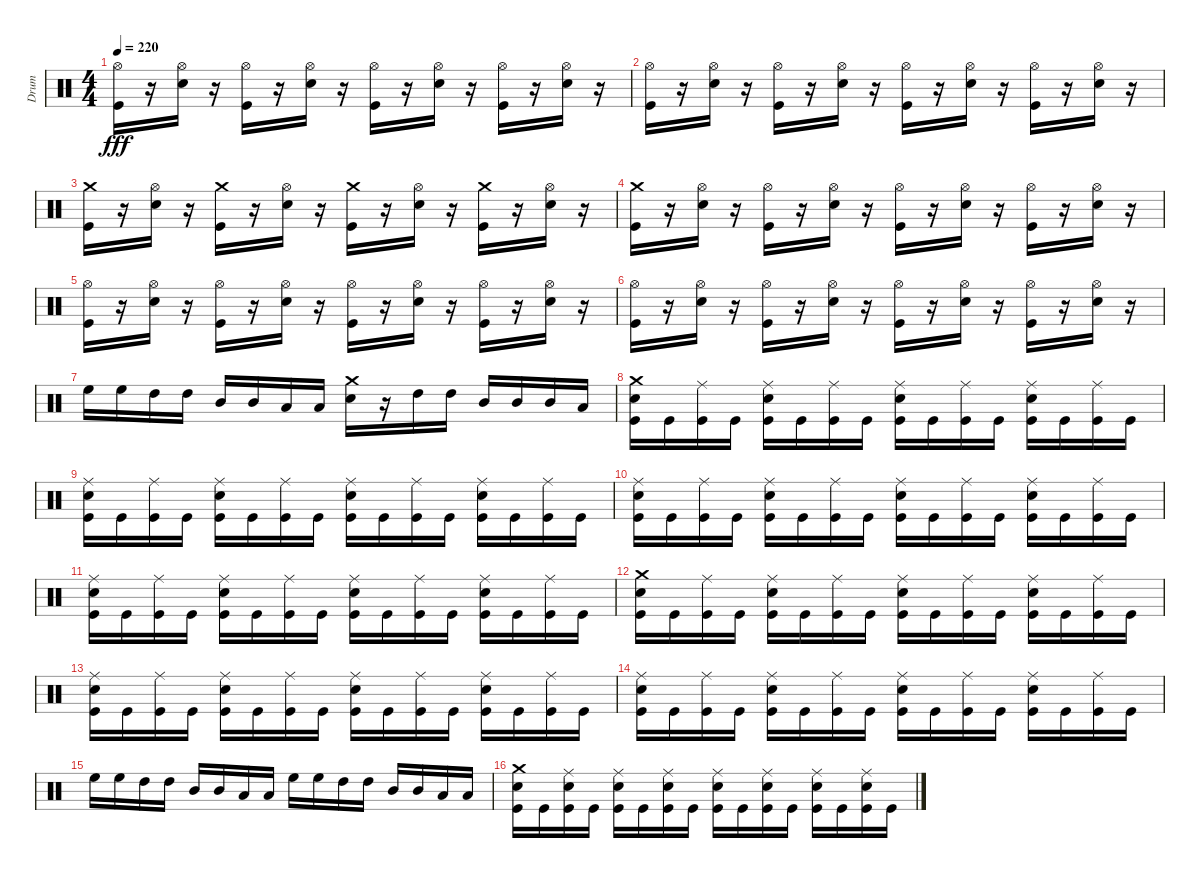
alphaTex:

\track ("Drum" "Drum") {instrument percussion}
\staff {score}
\articulation defaults
\ts (4 4)
\tempo 220
\clef neutral
\ks c
("Kick (hit)" "Hi-Hat (open)").16{dy fff} r.16 ("Snare (hit) 2" "Hi-Hat (open)").16 r.16 ("Kick (hit)" "Hi-Hat (open)").16 r.16 ("Hi-Hat (open)" "Snare (hit) 2").16 r.16 ("Kick (hit)" "Hi-Hat (open)").16 r.16 ("Snare (hit) 2" "Hi-Hat (open)").16 r.16 ("Hi-Hat (open)" "Kick (hit)").16 r.16 ("Hi-Hat (open)" "Snare (hit) 2").16 r.16 |
("Kick (hit)" "Hi-Hat (open)").16 r.16 ("Snare (hit) 2" "Hi-Hat (open)").16 r.16 ("Hi-Hat (open)" "Kick (hit)").16 r.16 ("Hi-Hat (open)" "Snare (hit) 2").16 r.16 ("Hi-Hat (open)" "Kick (hit)").16 r.16 ("Hi-Hat (open)" "Snare (hit) 2").16 r.16 ("Hi-Hat (open)" "Kick (hit)").16 r.16 ("Snare (hit) 2" "Hi-Hat (open)").16 r.16 |
("Kick (hit)" "Crash medium (hit)").16 r.16 ("Hi-Hat (open)" "Snare (hit) 2").16 r.16 ("Crash medium (hit)" "Kick (hit)").16 r.16 ("Snare (hit) 2" "Hi-Hat (open)").16 r.16 ("Crash medium (hit)" "Kick (hit)").16 r.16 ("Hi-Hat (open)" "Snare (hit) 2").16 r.16 ("Kick (hit)" "Crash medium (hit)").16 r.16 ("Hi-Hat (open)" "Snare (hit) 2").16 r.16 |
("Crash medium (hit)" "Kick (hit)").16 r.16 ("Hi-Hat (open)" "Snare (hit) 2").16 r.16 ("Kick (hit)" "Hi-Hat (open)").16 r.16 ("Hi-Hat (open)" "Snare (hit) 2").16 r.16 ("Hi-Hat (open)" "Kick (hit)").16 r.16 ("Hi-Hat (open)" "Snare (hit) 2").16 r.16 ("Hi-Hat (open)" "Kick (hit)").16 r.16 ("Hi-Hat (open)" "Snare (hit) 2").16 r.16 |
("Kick (hit)" "Hi-Hat (open)").16 r.16 ("Snare (hit) 2" "Hi-Hat (open)").16 r.16 ("Hi-Hat (open)" "Kick (hit)").16 r.16 ("Hi-Hat (open)" "Snare (hit) 2").16 r.16 ("Hi-Hat (open)" "Kick (hit)").16 r.16 ("Snare (hit) 2" "Hi-Hat (open)").16 r.16 ("Kick (hit)" "Hi-Hat (open)").16 r.16 ("Hi-Hat (open)" "Snare (hit) 2").16 r.16 |
("Hi-Hat (open)" "Kick (hit)").16 r.16 ("Hi-Hat (open)" "Snare (hit) 2").16 r.16 ("Hi-Hat (open)" "Kick (hit)").16 r.16 ("Snare (hit) 2" "Hi-Hat (open)").16 r.16 ("Hi-Hat (open)" "Kick (hit)").16 r.16 ("Hi-Hat (open)" "Snare (hit) 2").16 r.16 ("Kick (hit)" "Hi-Hat (open)").16 r.16 ("Snare (hit) 2" "Hi-Hat (open)").16 r.16 |
"High Floor Tom (hit)".16 "High Floor Tom (hit)".16 "High Tom (hit)".16 "High Tom (hit)".16 "Mid Tom (hit)".16 "Mid Tom (hit)".16 "Low Tom (hit)".16 "Low Tom (hit)".16 ("Snare (hit) 2" "Crash medium (hit)").16 r.16 "High Tom (hit)".16 "High Tom (hit)".16 "Mid Tom (hit)".16 "Mid Tom (hit)".16 "Mid Tom (hit)".16 "Low Tom (hit)".16 |
("Snare (hit) 2" "Crash medium (hit)" "Kick (hit)").16 "Kick (hit)".16 ("Ride (middle)" "Kick (hit)").16 "Kick (hit)".16 ("Ride (middle)" "Snare (hit) 2" "Kick (hit)").16 "Kick (hit)".16 ("Kick (hit)" "Ride (middle)").16 "Kick (hit)".16 ("Kick (hit)" "Ride (middle)" "Snare (hit) 2").16 "Kick (hit)".16 ("Kick (hit)" "Ride (middle)").16 "Kick (hit)".16 ("Ride (middle)" "Kick (hit)" "Snare (hit) 2").16 "Kick (hit)".16 ("Kick (hit)" "Ride (middle)").16 "Kick (hit)".16 |
("Kick (hit)" "Ride (middle)" "Snare (hit) 2").16 "Kick (hit)".16 ("Kick (hit)" "Ride (middle)").16 "Kick (hit)".16 ("Kick (hit)" "Snare (hit) 2" "Ride (middle)").16 "Kick (hit)".16 ("Kick (hit)" "Ride (middle)").16 "Kick (hit)".16 ("Kick (hit)" "Ride (middle)" "Snare (hit) 2").16 "Kick (hit)".16 ("Ride (middle)" "Kick (hit)").16 "Kick (hit)".16 ("Kick (hit)" "Ride (middle)" "Snare (hit) 2").16 "Kick (hit)".16 ("Ride (middle)" "Kick (hit)").16 "Kick (hit)".16 |
("Snare (hit) 2" "Kick (hit)" "Ride (middle)").16 "Kick (hit)".16 ("Ride (middle)" "Kick (hit)").16 "Kick (hit)".16 ("Kick (hit)" "Snare (hit) 2" "Ride (middle)").16 "Kick (hit)".16 ("Kick (hit)" "Ride (middle)").16 "Kick (hit)".16 ("Kick (hit)" "Ride (middle)" "Snare (hit) 2").16 "Kick (hit)".16 ("Kick (hit)" "Ride (middle)").16 "Kick (hit)".16 ("Kick (hit)" "Ride (middle)" "Snare (hit) 2").16 "Kick (hit)".16 ("Kick (hit)" "Ride (middle)").16 "Kick (hit)".16 |
("Snare (hit) 2" "Kick (hit)" "Ride (middle)").16 "Kick (hit)".16 ("Kick (hit)" "Ride (middle)").16 "Kick (hit)".16 ("Snare (hit) 2" "Ride (middle)" "Kick (hit)").16 "Kick (hit)".16 ("Ride (middle)" "Kick (hit)").16 "Kick (hit)".16 ("Ride (middle)" "Kick (hit)" "Snare (hit) 2").16 "Kick (hit)".16 ("Ride (middle)" "Kick (hit)").16 "Kick (hit)".16 ("Ride (middle)" "Snare (hit) 2" "Kick (hit)").16 "Kick (hit)".16 ("Kick (hit)" "Ride (middle)").16 "Kick (hit)".16 |
("Snare (hit) 2" "Kick (hit)" "Crash medium (hit)").16 "Kick (hit)".16 ("Kick (hit)" "Ride (middle)").16 "Kick (hit)".16 ("Kick (hit)" "Snare (hit) 2" "Ride (middle)").16 "Kick (hit)".16 ("Kick (hit)" "Ride (middle)").16 "Kick (hit)".16 ("Ride (middle)" "Snare (hit) 2" "Kick (hit)").16 "Kick (hit)".16 ("Kick (hit)" "Ride (middle)").16 "Kick (hit)".16 ("Ride (middle)" "Snare (hit) 2" "Kick (hit)").16 "Kick (hit)".16 ("Ride (middle)" "Kick (hit)").16 "Kick (hit)".16 |
("Ride (middle)" "Snare (hit) 2" "Kick (hit)").16 "Kick (hit)".16 ("Ride (middle)" "Kick (hit)").16 "Kick (hit)".16 ("Kick (hit)" "Snare (hit) 2" "Ride (middle)").16 "Kick (hit)".16 ("Ride (middle)" "Kick (hit)").16 "Kick (hit)".16 ("Kick (hit)" "Snare (hit) 2" "Ride (middle)").16 "Kick (hit)".16 ("Ride (middle)" "Kick (hit)").16 "Kick (hit)".16 ("Ride (middle)" "Snare (hit) 2" "Kick (hit)").16 "Kick (hit)".16 ("Kick (hit)" "Ride (middle)").16 "Kick (hit)".16 |
("Kick (hit)" "Snare (hit) 2" "Ride (middle)").16 "Kick (hit)".16 ("Kick (hit)" "Ride (middle)").16 "Kick (hit)".16 ("Ride (middle)" "Kick (hit)" "Snare (hit) 2").16 "Kick (hit)".16 ("Kick (hit)" "Ride (middle)").16 "Kick (hit)".16 ("Ride (middle)" "Snare (hit) 2" "Kick (hit)").16 "Kick (hit)".16 ("Kick (hit)" "Ride (middle)").16 "Kick (hit)".16 ("Ride (middle)" "Kick (hit)" "Snare (hit) 2").16 "Kick (hit)".16 ("Ride (middle)" "Kick (hit)").16 "Kick (hit)".16 |
"High Floor Tom (hit)".16 "High Floor Tom (hit)".16 "High Tom (hit)".16 "High Tom (hit)".16 "Mid Tom (hit)".16 "Mid Tom (hit)".16 "Low Tom (hit)".16 "Low Tom (hit)".16 "High Floor Tom (hit)".16 "High Floor Tom (hit)".16 "High Tom (hit)".16 "High Tom (hit)".16 "Mid Tom (hit)".16 "Mid Tom (hit)".16 "Low Tom (hit)".16 "Low Tom (hit)".16 |
("Crash medium (hit)" "Snare (hit) 2" "Kick (hit)").16 "Kick (hit)".16 ("Kick (hit)" "Ride (middle)" "Snare (hit) 2").16 "Kick (hit)".16 ("Kick (hit)" "Snare (hit) 2" "Ride (middle)").16 "Kick (hit)".16 ("Ride (middle)" "Kick (hit)" "Snare (hit) 2").16 "Kick (hit)".16 ("Snare (hit) 2" "Ride (middle)" "Kick (hit)").16 "Kick (hit)".16 ("Kick (hit)" "Ride (middle)" "Snare (hit) 2").16 "Kick (hit)".16 ("Kick (hit)" "Ride (middle)" "Snare (hit) 2").16 "Kick (hit)".16 ("Snare (hit) 2" "Ride (middle)" "Kick (hit)").16 "Kick (hit)".16
